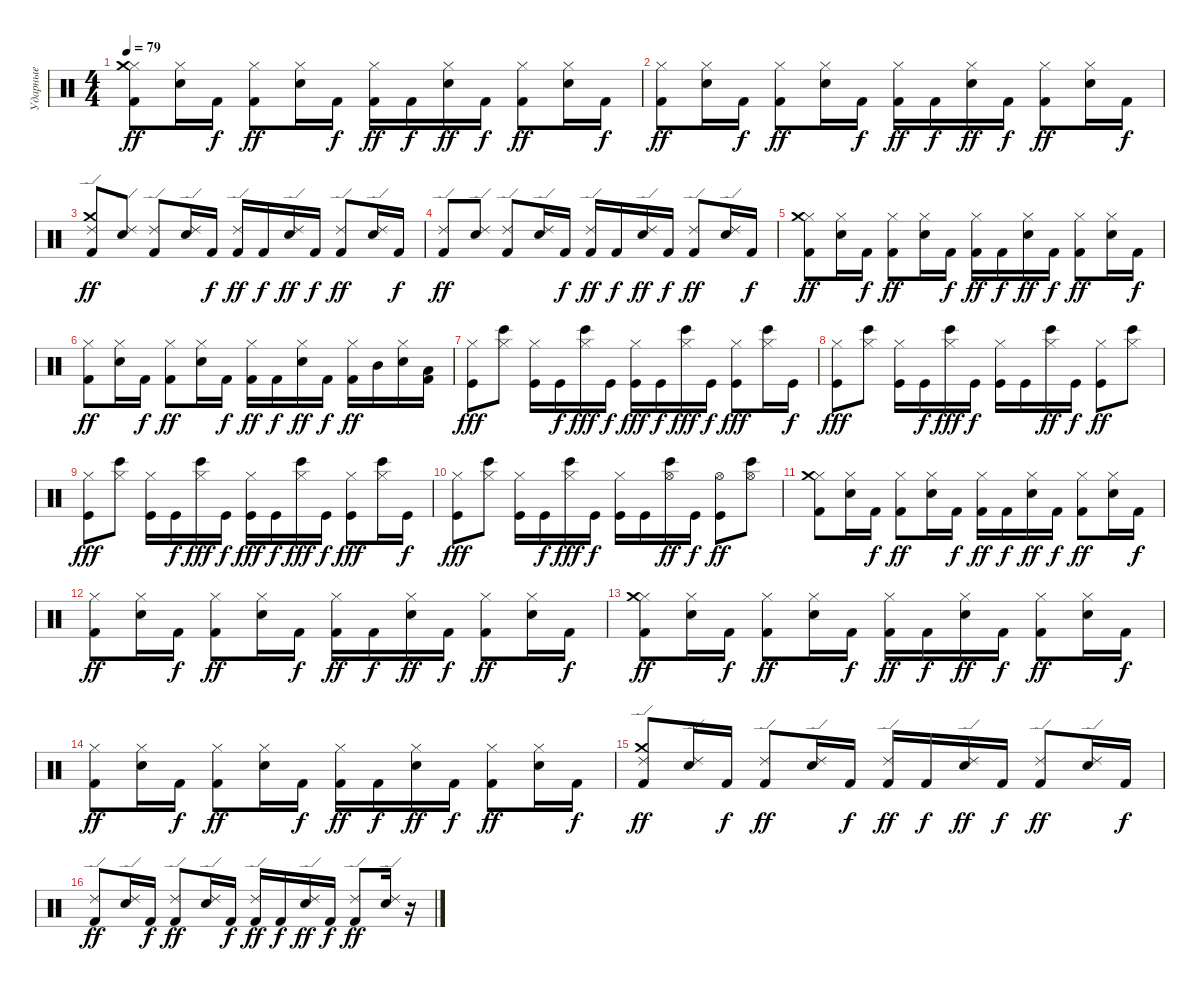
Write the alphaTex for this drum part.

\track ("Ударные" "Ударные") {instrument percussion}
\staff {score}
\articulation defaults
\ts (4 4)
\tempo 79
\clef neutral
\ks c
("Kick (hit) 2" "Hi-Hat (closed)" "Crash medium (hit)").8{dy ff} ("Snare (hit) 2" "Hi-Hat (closed)").16 "Kick (hit) 2".16{dy f} ("Kick (hit) 2" "Hi-Hat (closed)").8{dy ff} ("Snare (hit) 2" "Hi-Hat (closed)").16 "Kick (hit) 2".16{dy f} ("Kick (hit) 2" "Hi-Hat (closed)").16{dy ff} "Kick (hit) 2".16{dy f} ("Snare (hit) 2" "Hi-Hat (closed)").16{dy ff} "Kick (hit) 2".16{dy f} ("Kick (hit) 2" "Hi-Hat (closed)").8{dy ff} ("Snare (hit) 2" "Hi-Hat (closed)").16 "Kick (hit) 2".16{dy f} |
("Kick (hit) 2" "Hi-Hat (closed)").8{dy ff} ("Snare (hit) 2" "Hi-Hat (closed)").16 "Kick (hit) 2".16{dy f} ("Kick (hit) 2" "Hi-Hat (closed)").8{dy ff} ("Snare (hit) 2" "Hi-Hat (closed)").16 "Kick (hit) 2".16{dy f} ("Kick (hit) 2" "Hi-Hat (closed)").16{dy ff} "Kick (hit) 2".16{dy f} ("Snare (hit) 2" "Hi-Hat (closed)").16{dy ff} "Kick (hit) 2".16{dy f} ("Kick (hit) 2" "Hi-Hat (closed)").8{dy ff} ("Snare (hit) 2" "Hi-Hat (closed)").16 "Kick (hit) 2".16{dy f} |
("Kick (hit) 2" "Ride (edge) 2" "Crash medium (hit)").8{dy ff} ("Snare (hit) 2" "Ride (edge) 2").8 ("Kick (hit) 2" "Ride (edge) 2").8 ("Snare (hit) 2" "Ride (edge) 2").16 "Kick (hit) 2".16{dy f} ("Kick (hit) 2" "Ride (edge) 2").16{dy ff} "Kick (hit) 2".16{dy f} ("Snare (hit) 2" "Ride (edge) 2").16{dy ff} "Kick (hit) 2".16{dy f} ("Kick (hit) 2" "Ride (edge) 2").8{dy ff} ("Snare (hit) 2" "Ride (edge) 2").16 "Kick (hit) 2".16{dy f} |
("Kick (hit) 2" "Ride (edge) 2").8{dy ff} ("Snare (hit) 2" "Ride (edge) 2").8 ("Kick (hit) 2" "Ride (edge) 2").8 ("Snare (hit) 2" "Ride (edge) 2").16 "Kick (hit) 2".16{dy f} ("Kick (hit) 2" "Ride (edge) 2").16{dy ff} "Kick (hit) 2".16{dy f} ("Snare (hit) 2" "Ride (edge) 2").16{dy ff} "Kick (hit) 2".16{dy f} ("Kick (hit) 2" "Ride (edge) 2").8{dy ff} ("Snare (hit) 2" "Ride (edge) 2").16 "Kick (hit) 2".16{dy f} |
("Kick (hit) 2" "Hi-Hat (closed)" "Crash medium (hit)").8{dy ff} ("Snare (hit) 2" "Hi-Hat (closed)").16 "Kick (hit) 2".16{dy f} ("Kick (hit) 2" "Hi-Hat (closed)").8{dy ff} ("Snare (hit) 2" "Hi-Hat (closed)").16 "Kick (hit) 2".16{dy f} ("Kick (hit) 2" "Hi-Hat (closed)").16{dy ff} "Kick (hit) 2".16{dy f} ("Snare (hit) 2" "Hi-Hat (closed)").16{dy ff} "Kick (hit) 2".16{dy f} ("Kick (hit) 2" "Hi-Hat (closed)").8{dy ff} ("Snare (hit) 2" "Hi-Hat (closed)").16 "Kick (hit) 2".16{dy f} |
("Kick (hit) 2" "Hi-Hat (closed)").8{dy ff} ("Snare (hit) 2" "Hi-Hat (closed)").16 "Kick (hit) 2".16{dy f} ("Kick (hit) 2" "Hi-Hat (closed)").8{dy ff} ("Snare (hit) 2" "Hi-Hat (closed)").16 "Kick (hit) 2".16{dy f} ("Kick (hit) 2" "Hi-Hat (closed)").16{dy ff} "Kick (hit) 2".16{dy f} ("Snare (hit) 2" "Hi-Hat (closed)").16{dy ff} "Kick (hit) 2".16{dy f} ("Kick (hit) 2" "Hi-Hat (closed)").16{dy ff} "Mid Tom (hit)".16 ("Snare (hit) 2" "Hi-Hat (closed)").16 ("Kick (hit) 2" "Low Tom (hit)").16 |
("Kick (hit)" "Hi-Hat (closed)").8{dy fff} ("Bongo High (hit)" "Hi-Hat (closed)").8 ("Kick (hit)" "Hi-Hat (closed)").16 "Kick (hit)".16{dy f} ("Bongo High (hit)" "Hi-Hat (closed)").16{dy fff} "Kick (hit)".16{dy f} ("Kick (hit)" "Hi-Hat (closed)").16{dy fff} "Kick (hit)".16{dy f} ("Bongo High (hit)" "Hi-Hat (closed)").16{dy fff} "Kick (hit)".16{dy f} ("Kick (hit)" "Hi-Hat (closed)").8{dy fff} ("Bongo High (hit)" "Hi-Hat (closed)").16 "Kick (hit)".16{dy f} |
("Kick (hit)" "Hi-Hat (closed)").8{dy fff} ("Bongo High (hit)" "Hi-Hat (closed)").8 ("Kick (hit)" "Hi-Hat (closed)").16 "Kick (hit)".16{dy f} ("Bongo High (hit)" "Hi-Hat (closed)").16{dy fff} "Kick (hit)".16{dy f} ("Kick (hit)" "Hi-Hat (closed)").16 "Kick (hit)".16 ("Bongo High (hit)" "Hi-Hat (closed)").16{dy ff} "Kick (hit)".16{dy f} ("Kick (hit)" "Hi-Hat (closed)").8{dy ff} ("Bongo High (hit)" "Hi-Hat (closed)").8 |
("Kick (hit)" "Hi-Hat (closed)").8{dy fff} ("Bongo High (hit)" "Hi-Hat (closed)").8 ("Kick (hit)" "Hi-Hat (closed)").16 "Kick (hit)".16{dy f} ("Bongo High (hit)" "Hi-Hat (closed)").16{dy fff} "Kick (hit)".16{dy f} ("Kick (hit)" "Hi-Hat (closed)").16{dy fff} "Kick (hit)".16{dy f} ("Bongo High (hit)" "Hi-Hat (closed)").16{dy fff} "Kick (hit)".16{dy f} ("Kick (hit)" "Hi-Hat (closed)").8{dy fff} ("Bongo High (hit)" "Hi-Hat (closed)").16 "Kick (hit)".16{dy f} |
("Kick (hit)" "Hi-Hat (closed)").8{dy fff} ("Bongo High (hit)" "Hi-Hat (closed)").8 ("Kick (hit)" "Hi-Hat (closed)").16 "Kick (hit)".16{dy f} ("Bongo High (hit)" "Hi-Hat (closed)").16{dy fff} "Kick (hit)".16{dy f} ("Kick (hit)" "Hi-Hat (closed)").16 "Kick (hit)".16 ("Bongo High (hit)" "Hi-Hat (open)").16{dy ff} "Kick (hit)".16{dy f} ("Kick (hit)" "Hi-Hat (open)").8{dy ff} ("Bongo High (hit)" "Hi-Hat (open)").8 |
("Kick (hit) 2" "Hi-Hat (closed)" "Crash medium (hit)").8 ("Snare (hit) 2" "Hi-Hat (closed)").16 "Kick (hit) 2".16{dy f} ("Kick (hit) 2" "Hi-Hat (closed)").8{dy ff} ("Snare (hit) 2" "Hi-Hat (closed)").16 "Kick (hit) 2".16{dy f} ("Kick (hit) 2" "Hi-Hat (closed)").16{dy ff} "Kick (hit) 2".16{dy f} ("Snare (hit) 2" "Hi-Hat (closed)").16{dy ff} "Kick (hit) 2".16{dy f} ("Kick (hit) 2" "Hi-Hat (closed)").8{dy ff} ("Snare (hit) 2" "Hi-Hat (closed)").16 "Kick (hit) 2".16{dy f} |
("Kick (hit) 2" "Hi-Hat (closed)").8{dy ff} ("Snare (hit) 2" "Hi-Hat (closed)").16 "Kick (hit) 2".16{dy f} ("Kick (hit) 2" "Hi-Hat (closed)").8{dy ff} ("Snare (hit) 2" "Hi-Hat (closed)").16 "Kick (hit) 2".16{dy f} ("Kick (hit) 2" "Hi-Hat (closed)").16{dy ff} "Kick (hit) 2".16{dy f} ("Snare (hit) 2" "Hi-Hat (closed)").16{dy ff} "Kick (hit) 2".16{dy f} ("Kick (hit) 2" "Hi-Hat (closed)").8{dy ff} ("Snare (hit) 2" "Hi-Hat (closed)").16 "Kick (hit) 2".16{dy f} |
("Kick (hit) 2" "Hi-Hat (closed)" "Crash medium (hit)").8{dy ff} ("Snare (hit) 2" "Hi-Hat (closed)").16 "Kick (hit) 2".16{dy f} ("Kick (hit) 2" "Hi-Hat (closed)").8{dy ff} ("Snare (hit) 2" "Hi-Hat (closed)").16 "Kick (hit) 2".16{dy f} ("Kick (hit) 2" "Hi-Hat (closed)").16{dy ff} "Kick (hit) 2".16{dy f} ("Snare (hit) 2" "Hi-Hat (closed)").16{dy ff} "Kick (hit) 2".16{dy f} ("Kick (hit) 2" "Hi-Hat (closed)").8{dy ff} ("Snare (hit) 2" "Hi-Hat (closed)").16 "Kick (hit) 2".16{dy f} |
("Kick (hit) 2" "Hi-Hat (closed)").8{dy ff} ("Snare (hit) 2" "Hi-Hat (closed)").16 "Kick (hit) 2".16{dy f} ("Kick (hit) 2" "Hi-Hat (closed)").8{dy ff} ("Snare (hit) 2" "Hi-Hat (closed)").16 "Kick (hit) 2".16{dy f} ("Kick (hit) 2" "Hi-Hat (closed)").16{dy ff} "Kick (hit) 2".16{dy f} ("Snare (hit) 2" "Hi-Hat (closed)").16{dy ff} "Kick (hit) 2".16{dy f} ("Kick (hit) 2" "Hi-Hat (closed)").8{dy ff} ("Snare (hit) 2" "Hi-Hat (closed)").16 "Kick (hit) 2".16{dy f} |
("Kick (hit) 2" "Ride (edge) 2" "Crash medium (hit)").8{dy ff} ("Snare (hit) 2" "Ride (edge) 2").16 "Kick (hit) 2".16{dy f} ("Kick (hit) 2" "Ride (edge) 2").8{dy ff} ("Snare (hit) 2" "Ride (edge) 2").16 "Kick (hit) 2".16{dy f} ("Kick (hit) 2" "Ride (edge) 2").16{dy ff} "Kick (hit) 2".16{dy f} ("Snare (hit) 2" "Ride (edge) 2").16{dy ff} "Kick (hit) 2".16{dy f} ("Kick (hit) 2" "Ride (edge) 2").8{dy ff} ("Snare (hit) 2" "Ride (edge) 2").16 "Kick (hit) 2".16{dy f} |
("Kick (hit) 2" "Ride (edge) 2").8{dy ff} ("Snare (hit) 2" "Ride (edge) 2").16 "Kick (hit) 2".16{dy f} ("Kick (hit) 2" "Ride (edge) 2").8{dy ff} ("Snare (hit) 2" "Ride (edge) 2").16 "Kick (hit) 2".16{dy f} ("Kick (hit) 2" "Ride (edge) 2").16{dy ff} "Kick (hit) 2".16{dy f} ("Snare (hit) 2" "Ride (edge) 2").16{dy ff} "Kick (hit) 2".16{dy f} ("Kick (hit) 2" "Ride (edge) 2").8{dy ff} ("Snare (hit) 2" "Ride (edge) 2").16 r.16
